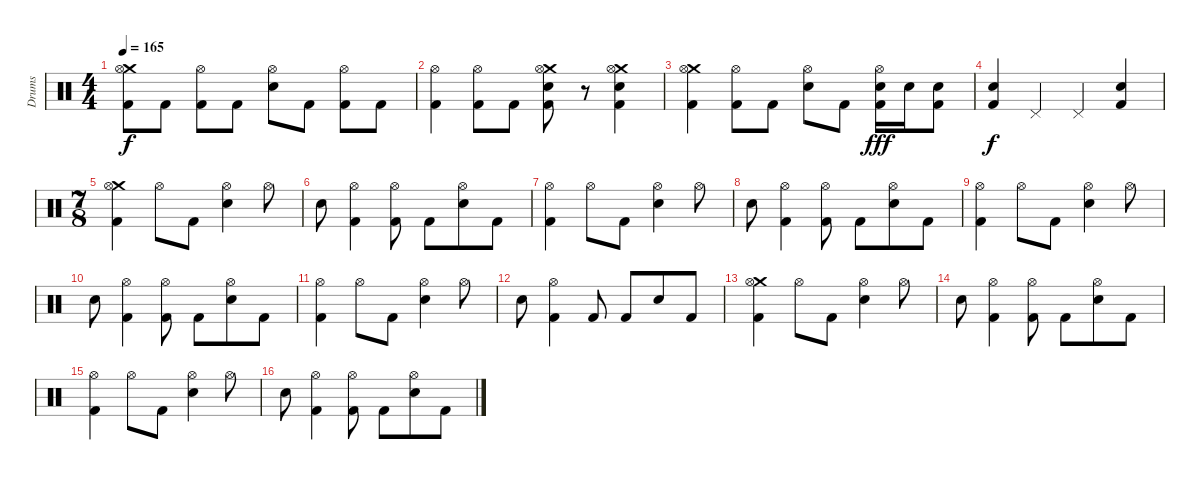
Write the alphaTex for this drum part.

\track ("Drums" "Drums") {instrument percussion}
\staff {score}
\articulation defaults
\ts (4 4)
\tempo 165
\clef neutral
\ks c
("Crash medium (hit)" "Hi-Hat (open)" "Kick (hit) 2").8{dy f} "Kick (hit) 2".8 ("Hi-Hat (open)" "Kick (hit) 2").8 "Kick (hit) 2".8 ("Hi-Hat (open)" "Electric Snare (hit)").8 "Kick (hit) 2".8 ("Hi-Hat (open)" "Kick (hit) 2").8 "Kick (hit) 2".8 |
("Hi-Hat (open)" "Kick (hit) 2").4 ("Hi-Hat (open)" "Kick (hit) 2").8 "Kick (hit) 2".8 ("Crash medium (hit)" "Hi-Hat (open)" "Electric Snare (hit)" "Kick (hit) 2").8 r.8 ("Crash medium (hit)" "Hi-Hat (open)" "Electric Snare (hit)" "Kick (hit) 2").4 |
("Crash medium (hit)" "Hi-Hat (open)" "Kick (hit) 2").4 ("Hi-Hat (open)" "Kick (hit) 2").8 "Kick (hit) 2".8 ("Hi-Hat (open)" "Electric Snare (hit)").8 "Kick (hit) 2".8 ("Hi-Hat (open)" "Electric Snare (hit)" "Kick (hit) 2").16{dy fff} "Electric Snare (hit)".16 ("Electric Snare (hit)" "Kick (hit) 2").8 |
("Electric Snare (hit)" "Kick (hit) 2").4{dy f} "Pedal Hi-Hat (hit)".4 "Pedal Hi-Hat (hit)".4 ("Electric Snare (hit)" "Kick (hit) 2").4 |
\ts (7 8)
("Crash medium (hit)" "Hi-Hat (open)" "Kick (hit) 2").4 "Hi-Hat (open)".8 "Kick (hit) 2".8 ("Hi-Hat (open)" "Electric Snare (hit)").4 "Hi-Hat (open)".8 |
"Snare (hit) 2".8 ("Hi-Hat (open)" "Kick (hit) 2").4 ("Hi-Hat (open)" "Kick (hit) 2").8 "Kick (hit) 2".8 ("Hi-Hat (open)" "Electric Snare (hit)").8 "Kick (hit) 2".8 |
("Hi-Hat (open)" "Kick (hit) 2").4 "Hi-Hat (open)".8 "Kick (hit) 2".8 ("Hi-Hat (open)" "Electric Snare (hit)").4 "Hi-Hat (open)".8 |
"Snare (hit) 2".8 ("Hi-Hat (open)" "Kick (hit) 2").4 ("Hi-Hat (open)" "Kick (hit) 2").8 "Kick (hit) 2".8 ("Hi-Hat (open)" "Electric Snare (hit)").8 "Kick (hit) 2".8 |
("Hi-Hat (open)" "Kick (hit) 2").4 "Hi-Hat (open)".8 "Kick (hit) 2".8 ("Hi-Hat (open)" "Electric Snare (hit)").4 "Hi-Hat (open)".8 |
"Snare (hit) 2".8 ("Hi-Hat (open)" "Kick (hit) 2").4 ("Hi-Hat (open)" "Kick (hit) 2").8 "Kick (hit) 2".8 ("Hi-Hat (open)" "Electric Snare (hit)").8 "Kick (hit) 2".8 |
("Hi-Hat (open)" "Kick (hit) 2").4 "Hi-Hat (open)".8 "Kick (hit) 2".8 ("Hi-Hat (open)" "Electric Snare (hit)").4 "Hi-Hat (open)".8 |
"Snare (hit) 2".8 ("Hi-Hat (open)" "Kick (hit) 2").4 "Kick (hit) 2".8 "Kick (hit) 2".8 "Electric Snare (hit)".8 "Kick (hit) 2".8 |
("Crash medium (hit)" "Hi-Hat (open)" "Kick (hit) 2").4 "Hi-Hat (open)".8 "Kick (hit) 2".8 ("Hi-Hat (open)" "Electric Snare (hit)").4 "Hi-Hat (open)".8 |
"Snare (hit) 2".8 ("Hi-Hat (open)" "Kick (hit) 2").4 ("Hi-Hat (open)" "Kick (hit) 2").8 "Kick (hit) 2".8 ("Hi-Hat (open)" "Electric Snare (hit)").8 "Kick (hit) 2".8 |
("Hi-Hat (open)" "Kick (hit) 2").4 "Hi-Hat (open)".8 "Kick (hit) 2".8 ("Hi-Hat (open)" "Electric Snare (hit)").4 "Hi-Hat (open)".8 |
"Snare (hit) 2".8 ("Hi-Hat (open)" "Kick (hit) 2").4 ("Hi-Hat (open)" "Kick (hit) 2").8 "Kick (hit) 2".8 ("Hi-Hat (open)" "Electric Snare (hit)").8 "Kick (hit) 2".8
